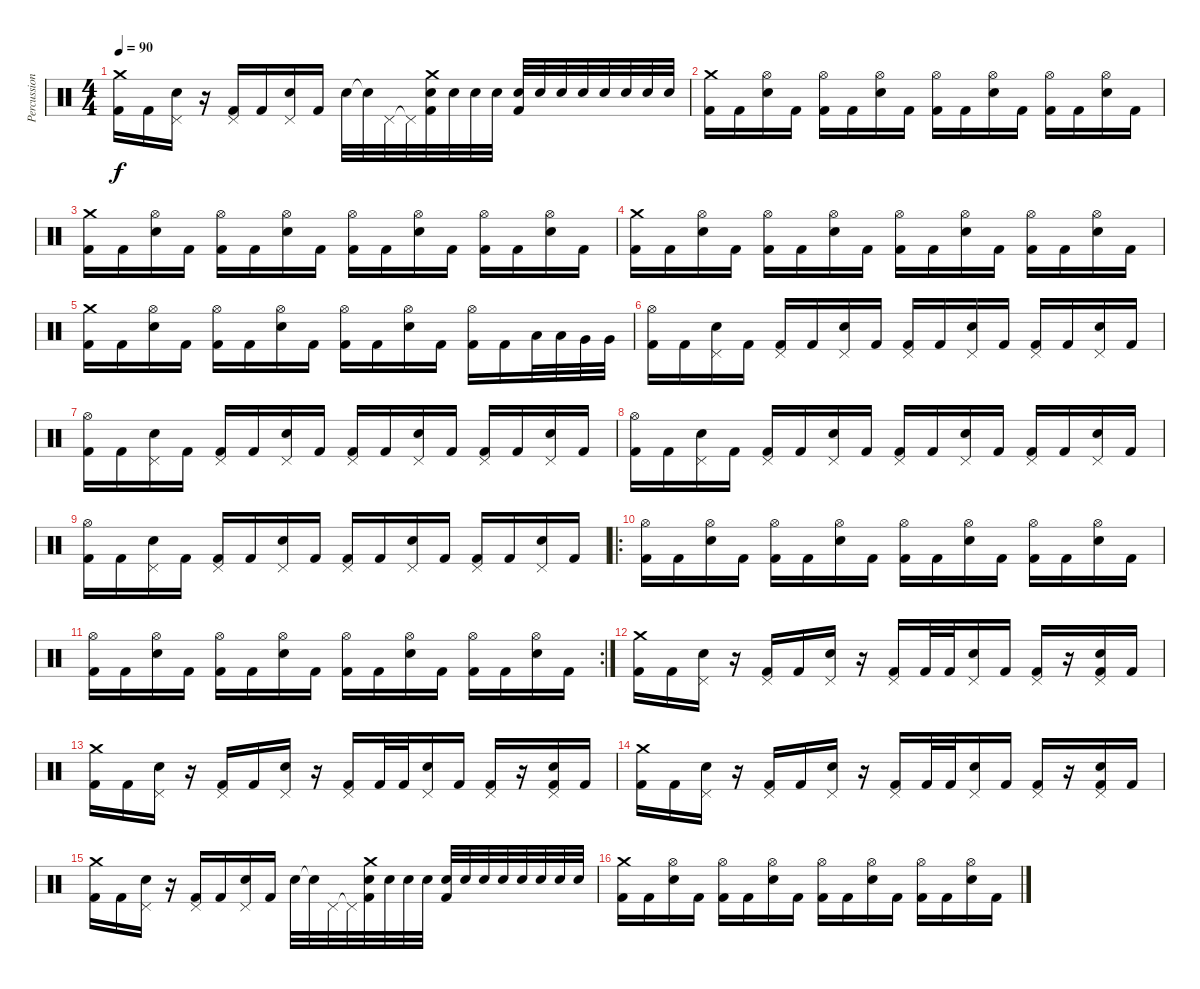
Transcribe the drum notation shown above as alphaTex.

\track ("Percussion" "Percussion") {instrument percussion}
\staff {score}
\articulation defaults
\ts (4 4)
\tempo 90
\clef neutral
\ks c
("Crash medium (hit)" "Kick (hit) 2").16{dy f} "Kick (hit) 2".16 ("Pedal Hi-Hat (hit)" "Electric Snare (hit)").16 r.16 ("Pedal Hi-Hat (hit)" "Kick (hit) 2").16 "Kick (hit) 2".16 ("Pedal Hi-Hat (hit)" "Electric Snare (hit)").16 "Kick (hit) 2".16 "Electric Snare (hit)".32 "Electric Snare (hit)"{t}.32 "Pedal Hi-Hat (hit)".32 "Pedal Hi-Hat (hit)"{t}.32 ("Crash medium (hit)" "Electric Snare (hit)" "Kick (hit) 2").32 "Electric Snare (hit)".32 "Electric Snare (hit)".32 "Electric Snare (hit)".32 ("Electric Snare (hit)" "Kick (hit) 2").32 "Electric Snare (hit)".32 "Electric Snare (hit)".32 "Electric Snare (hit)".32 "Electric Snare (hit)".32 "Electric Snare (hit)".32 "Electric Snare (hit)".32 "Electric Snare (hit)".32 |
("Crash medium (hit)" "Kick (hit) 2").16 "Kick (hit) 2".16 ("Hi-Hat (open)" "Electric Snare (hit)").16 "Kick (hit) 2".16 ("Hi-Hat (open)" "Kick (hit) 2").16 "Kick (hit) 2".16 ("Hi-Hat (open)" "Electric Snare (hit)").16 "Kick (hit) 2".16 ("Hi-Hat (open)" "Kick (hit) 2").16 "Kick (hit) 2".16 ("Hi-Hat (open)" "Electric Snare (hit)").16 "Kick (hit) 2".16 ("Hi-Hat (open)" "Kick (hit) 2").16 "Kick (hit) 2".16 ("Hi-Hat (open)" "Electric Snare (hit)").16 "Kick (hit) 2".16 |
("Crash medium (hit)" "Kick (hit) 2").16 "Kick (hit) 2".16 ("Hi-Hat (open)" "Electric Snare (hit)").16 "Kick (hit) 2".16 ("Hi-Hat (open)" "Kick (hit) 2").16 "Kick (hit) 2".16 ("Hi-Hat (open)" "Electric Snare (hit)").16 "Kick (hit) 2".16 ("Hi-Hat (open)" "Kick (hit) 2").16 "Kick (hit) 2".16 ("Hi-Hat (open)" "Electric Snare (hit)").16 "Kick (hit) 2".16 ("Hi-Hat (open)" "Kick (hit) 2").16 "Kick (hit) 2".16 ("Hi-Hat (open)" "Electric Snare (hit)").16 "Kick (hit) 2".16 |
("Crash medium (hit)" "Kick (hit) 2").16 "Kick (hit) 2".16 ("Hi-Hat (open)" "Electric Snare (hit)").16 "Kick (hit) 2".16 ("Hi-Hat (open)" "Kick (hit) 2").16 "Kick (hit) 2".16 ("Hi-Hat (open)" "Electric Snare (hit)").16 "Kick (hit) 2".16 ("Hi-Hat (open)" "Kick (hit) 2").16 "Kick (hit) 2".16 ("Hi-Hat (open)" "Electric Snare (hit)").16 "Kick (hit) 2".16 ("Hi-Hat (open)" "Kick (hit) 2").16 "Kick (hit) 2".16 ("Hi-Hat (open)" "Electric Snare (hit)").16 "Kick (hit) 2".16 |
("Crash medium (hit)" "Kick (hit) 2").16 "Kick (hit) 2".16 ("Hi-Hat (open)" "Electric Snare (hit)").16 "Kick (hit) 2".16 ("Hi-Hat (open)" "Kick (hit) 2").16 "Kick (hit) 2".16 ("Hi-Hat (open)" "Electric Snare (hit)").16 "Kick (hit) 2".16 ("Hi-Hat (open)" "Kick (hit) 2").16 "Kick (hit) 2".16 ("Hi-Hat (open)" "Electric Snare (hit)").16 "Kick (hit) 2".16 ("Hi-Hat (open)" "Kick (hit) 2").16 "Kick (hit) 2".16 "Low Tom (hit)".32 "Low Tom (hit)".32 "Very Low Tom (hit)".32 "Very Low Tom (hit)".32 |
("Hi-Hat (open)" "Kick (hit) 2").16 "Kick (hit) 2".16 ("Pedal Hi-Hat (hit)" "Electric Snare (hit)").16 "Kick (hit) 2".16 ("Pedal Hi-Hat (hit)" "Kick (hit) 2").16 "Kick (hit) 2".16 ("Pedal Hi-Hat (hit)" "Electric Snare (hit)").16 "Kick (hit) 2".16 ("Pedal Hi-Hat (hit)" "Kick (hit) 2").16 "Kick (hit) 2".16 ("Pedal Hi-Hat (hit)" "Electric Snare (hit)").16 "Kick (hit) 2".16 ("Pedal Hi-Hat (hit)" "Kick (hit) 2").16 "Kick (hit) 2".16 ("Pedal Hi-Hat (hit)" "Electric Snare (hit)").16 "Kick (hit) 2".16 |
("Hi-Hat (open)" "Kick (hit) 2").16 "Kick (hit) 2".16 ("Pedal Hi-Hat (hit)" "Electric Snare (hit)").16 "Kick (hit) 2".16 ("Pedal Hi-Hat (hit)" "Kick (hit) 2").16 "Kick (hit) 2".16 ("Pedal Hi-Hat (hit)" "Electric Snare (hit)").16 "Kick (hit) 2".16 ("Pedal Hi-Hat (hit)" "Kick (hit) 2").16 "Kick (hit) 2".16 ("Pedal Hi-Hat (hit)" "Electric Snare (hit)").16 "Kick (hit) 2".16 ("Pedal Hi-Hat (hit)" "Kick (hit) 2").16 "Kick (hit) 2".16 ("Pedal Hi-Hat (hit)" "Electric Snare (hit)").16 "Kick (hit) 2".16 |
("Hi-Hat (open)" "Kick (hit) 2").16 "Kick (hit) 2".16 ("Pedal Hi-Hat (hit)" "Electric Snare (hit)").16 "Kick (hit) 2".16 ("Pedal Hi-Hat (hit)" "Kick (hit) 2").16 "Kick (hit) 2".16 ("Pedal Hi-Hat (hit)" "Electric Snare (hit)").16 "Kick (hit) 2".16 ("Pedal Hi-Hat (hit)" "Kick (hit) 2").16 "Kick (hit) 2".16 ("Pedal Hi-Hat (hit)" "Electric Snare (hit)").16 "Kick (hit) 2".16 ("Pedal Hi-Hat (hit)" "Kick (hit) 2").16 "Kick (hit) 2".16 ("Pedal Hi-Hat (hit)" "Electric Snare (hit)").16 "Kick (hit) 2".16 |
("Hi-Hat (open)" "Kick (hit) 2").16 "Kick (hit) 2".16 ("Pedal Hi-Hat (hit)" "Electric Snare (hit)").16 "Kick (hit) 2".16 ("Pedal Hi-Hat (hit)" "Kick (hit) 2").16 "Kick (hit) 2".16 ("Pedal Hi-Hat (hit)" "Electric Snare (hit)").16 "Kick (hit) 2".16 ("Pedal Hi-Hat (hit)" "Kick (hit) 2").16 "Kick (hit) 2".16 ("Pedal Hi-Hat (hit)" "Electric Snare (hit)").16 "Kick (hit) 2".16 ("Pedal Hi-Hat (hit)" "Kick (hit) 2").16 "Kick (hit) 2".16 ("Pedal Hi-Hat (hit)" "Electric Snare (hit)").16 "Kick (hit) 2".16 |
\ro
("Hi-Hat (open)" "Kick (hit) 2").16 "Kick (hit) 2".16 ("Hi-Hat (open)" "Electric Snare (hit)").16 "Kick (hit) 2".16 ("Hi-Hat (open)" "Kick (hit) 2").16 "Kick (hit) 2".16 ("Hi-Hat (open)" "Electric Snare (hit)").16 "Kick (hit) 2".16 ("Hi-Hat (open)" "Kick (hit) 2").16 "Kick (hit) 2".16 ("Hi-Hat (open)" "Electric Snare (hit)").16 "Kick (hit) 2".16 ("Hi-Hat (open)" "Kick (hit) 2").16 "Kick (hit) 2".16 ("Hi-Hat (open)" "Electric Snare (hit)").16 "Kick (hit) 2".16 |
\rc 2
("Hi-Hat (open)" "Kick (hit) 2").16 "Kick (hit) 2".16 ("Hi-Hat (open)" "Electric Snare (hit)").16 "Kick (hit) 2".16 ("Hi-Hat (open)" "Kick (hit) 2").16 "Kick (hit) 2".16 ("Hi-Hat (open)" "Electric Snare (hit)").16 "Kick (hit) 2".16 ("Hi-Hat (open)" "Kick (hit) 2").16 "Kick (hit) 2".16 ("Hi-Hat (open)" "Electric Snare (hit)").16 "Kick (hit) 2".16 ("Hi-Hat (open)" "Kick (hit) 2").16 "Kick (hit) 2".16 ("Hi-Hat (open)" "Electric Snare (hit)").16 "Kick (hit) 2".16 |
("Crash medium (hit)" "Kick (hit) 2").16 "Kick (hit) 2".16 ("Pedal Hi-Hat (hit)" "Electric Snare (hit)").16 r.16 ("Pedal Hi-Hat (hit)" "Kick (hit) 2").16 "Kick (hit) 2".16 ("Pedal Hi-Hat (hit)" "Electric Snare (hit)").16 r.16 ("Pedal Hi-Hat (hit)" "Kick (hit) 2").16 "Kick (hit) 2".32 "Kick (hit) 2".32 ("Pedal Hi-Hat (hit)" "Electric Snare (hit)").16 "Kick (hit) 2".16 ("Pedal Hi-Hat (hit)" "Kick (hit) 2").16 r.16 ("Pedal Hi-Hat (hit)" "Electric Snare (hit)" "Kick (hit) 2").16 "Kick (hit) 2".16 |
("Crash medium (hit)" "Kick (hit) 2").16 "Kick (hit) 2".16 ("Pedal Hi-Hat (hit)" "Electric Snare (hit)").16 r.16 ("Pedal Hi-Hat (hit)" "Kick (hit) 2").16 "Kick (hit) 2".16 ("Pedal Hi-Hat (hit)" "Electric Snare (hit)").16 r.16 ("Pedal Hi-Hat (hit)" "Kick (hit) 2").16 "Kick (hit) 2".32 "Kick (hit) 2".32 ("Pedal Hi-Hat (hit)" "Electric Snare (hit)").16 "Kick (hit) 2".16 ("Pedal Hi-Hat (hit)" "Kick (hit) 2").16 r.16 ("Pedal Hi-Hat (hit)" "Electric Snare (hit)" "Kick (hit) 2").16 "Kick (hit) 2".16 |
("Crash medium (hit)" "Kick (hit) 2").16 "Kick (hit) 2".16 ("Pedal Hi-Hat (hit)" "Electric Snare (hit)").16 r.16 ("Pedal Hi-Hat (hit)" "Kick (hit) 2").16 "Kick (hit) 2".16 ("Pedal Hi-Hat (hit)" "Electric Snare (hit)").16 r.16 ("Pedal Hi-Hat (hit)" "Kick (hit) 2").16 "Kick (hit) 2".32 "Kick (hit) 2".32 ("Pedal Hi-Hat (hit)" "Electric Snare (hit)").16 "Kick (hit) 2".16 ("Pedal Hi-Hat (hit)" "Kick (hit) 2").16 r.16 ("Pedal Hi-Hat (hit)" "Electric Snare (hit)" "Kick (hit) 2").16 "Kick (hit) 2".16 |
("Crash medium (hit)" "Kick (hit) 2").16 "Kick (hit) 2".16 ("Pedal Hi-Hat (hit)" "Electric Snare (hit)").16 r.16 ("Pedal Hi-Hat (hit)" "Kick (hit) 2").16 "Kick (hit) 2".16 ("Pedal Hi-Hat (hit)" "Electric Snare (hit)").16 "Kick (hit) 2".16 "Electric Snare (hit)".32 "Electric Snare (hit)"{t}.32 "Pedal Hi-Hat (hit)".32 "Pedal Hi-Hat (hit)"{t}.32 ("Crash medium (hit)" "Electric Snare (hit)" "Kick (hit) 2").32 "Electric Snare (hit)".32 "Electric Snare (hit)".32 "Electric Snare (hit)".32 ("Electric Snare (hit)" "Kick (hit) 2").32 "Electric Snare (hit)".32 "Electric Snare (hit)".32 "Electric Snare (hit)".32 "Electric Snare (hit)".32 "Electric Snare (hit)".32 "Electric Snare (hit)".32 "Electric Snare (hit)".32 |
("Crash medium (hit)" "Kick (hit) 2").16 "Kick (hit) 2".16 ("Hi-Hat (open)" "Electric Snare (hit)").16 "Kick (hit) 2".16 ("Hi-Hat (open)" "Kick (hit) 2").16 "Kick (hit) 2".16 ("Hi-Hat (open)" "Electric Snare (hit)").16 "Kick (hit) 2".16 ("Hi-Hat (open)" "Kick (hit) 2").16 "Kick (hit) 2".16 ("Hi-Hat (open)" "Electric Snare (hit)").16 "Kick (hit) 2".16 ("Hi-Hat (open)" "Kick (hit) 2").16 "Kick (hit) 2".16 ("Hi-Hat (open)" "Electric Snare (hit)").16 "Kick (hit) 2".16
